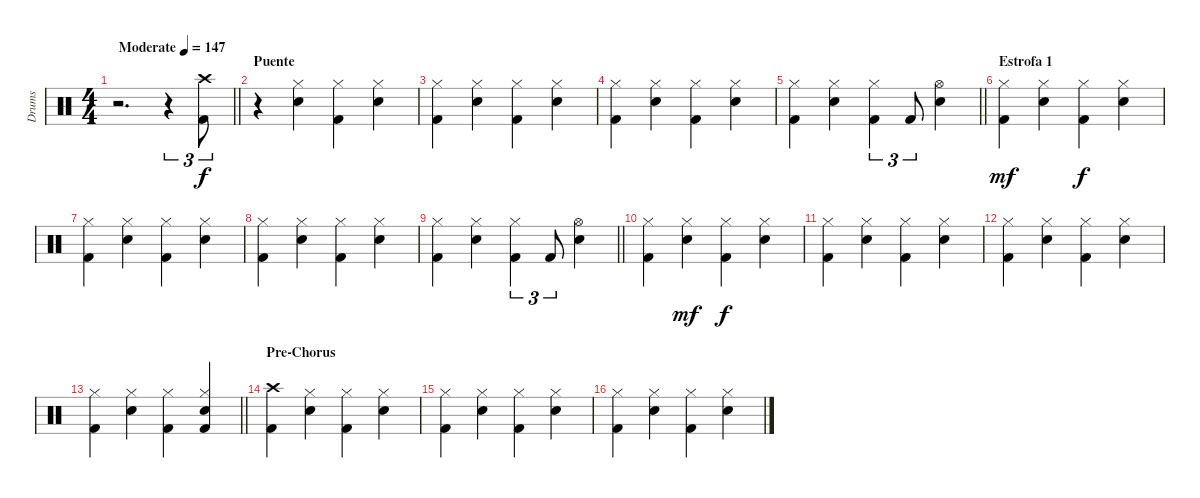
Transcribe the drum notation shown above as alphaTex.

\track ("Drums" "Drums") {instrument percussion}
\staff {score}
\articulation defaults
\ts (4 4)
\tempo (147 "Moderate")
\clef neutral
\barLineRight lightlight
\ks c
r.2{d dy f} r.4{tu (3 2)} ("Crash high (hit)" "Kick (hit) 2").8{tu (3 2)} |
\section ("" "Puente")
r.4 ("Hi-Hat (closed)" "Electric Snare (hit)").4 ("Hi-Hat (closed)" "Kick (hit) 2").4 ("Hi-Hat (closed)" "Electric Snare (hit)").4 |
("Hi-Hat (closed)" "Kick (hit) 2").4 ("Hi-Hat (closed)" "Electric Snare (hit)").4 ("Hi-Hat (closed)" "Kick (hit) 2").4 ("Hi-Hat (closed)" "Electric Snare (hit)").4 |
("Hi-Hat (closed)" "Kick (hit) 2").4 ("Hi-Hat (closed)" "Electric Snare (hit)").4 ("Hi-Hat (closed)" "Kick (hit) 2").4 ("Hi-Hat (closed)" "Electric Snare (hit)").4 |
\barLineRight lightlight
("Hi-Hat (closed)" "Kick (hit) 2").4 ("Hi-Hat (closed)" "Electric Snare (hit)").4 ("Hi-Hat (closed)" "Kick (hit) 2").4{tu (3 2)} "Kick (hit) 2".8{tu (3 2)} ("Hi-Hat (open)" "Electric Snare (hit)").4 |
\section ("" "Estrofa 1")
("Hi-Hat (closed)" "Kick (hit) 2").4{dy mf} ("Hi-Hat (closed)" "Electric Snare (hit)").4 ("Hi-Hat (closed)" "Kick (hit) 2").4{dy f} ("Hi-Hat (closed)" "Electric Snare (hit)").4 |
("Hi-Hat (closed)" "Kick (hit) 2").4 ("Hi-Hat (closed)" "Electric Snare (hit)").4 ("Hi-Hat (closed)" "Kick (hit) 2").4 ("Hi-Hat (closed)" "Electric Snare (hit)").4 |
("Hi-Hat (closed)" "Kick (hit) 2").4 ("Hi-Hat (closed)" "Electric Snare (hit)").4 ("Hi-Hat (closed)" "Kick (hit) 2").4 ("Hi-Hat (closed)" "Electric Snare (hit)").4 |
\barLineRight lightlight
("Hi-Hat (closed)" "Kick (hit) 2").4 ("Hi-Hat (closed)" "Electric Snare (hit)").4 ("Hi-Hat (closed)" "Kick (hit) 2").4{tu (3 2)} "Kick (hit) 2".8{tu (3 2)} ("Hi-Hat (open)" "Electric Snare (hit)").4 |
("Hi-Hat (closed)" "Kick (hit) 2").4 ("Hi-Hat (closed)" "Electric Snare (hit)").4{dy mf} ("Hi-Hat (closed)" "Kick (hit) 2").4{dy f} ("Hi-Hat (closed)" "Electric Snare (hit)").4 |
("Hi-Hat (closed)" "Kick (hit) 2").4 ("Hi-Hat (closed)" "Electric Snare (hit)").4 ("Hi-Hat (closed)" "Kick (hit) 2").4 ("Hi-Hat (closed)" "Electric Snare (hit)").4 |
("Hi-Hat (closed)" "Kick (hit) 2").4 ("Hi-Hat (closed)" "Electric Snare (hit)").4 ("Hi-Hat (closed)" "Kick (hit) 2").4 ("Hi-Hat (closed)" "Electric Snare (hit)").4 |
\barLineRight lightlight
("Hi-Hat (closed)" "Kick (hit) 2").4 ("Hi-Hat (closed)" "Electric Snare (hit)").4 ("Hi-Hat (closed)" "Kick (hit) 2").4 ("Hi-Hat (closed)" "Electric Snare (hit)" "Kick (hit) 2").4 |
\section ("" "Pre-Chorus")
("Crash high (hit)" "Kick (hit) 2").4 ("Hi-Hat (closed)" "Electric Snare (hit)").4 ("Hi-Hat (closed)" "Kick (hit) 2").4 ("Hi-Hat (closed)" "Electric Snare (hit)").4 |
("Hi-Hat (closed)" "Kick (hit) 2").4 ("Hi-Hat (closed)" "Electric Snare (hit)").4 ("Hi-Hat (closed)" "Kick (hit) 2").4 ("Hi-Hat (closed)" "Electric Snare (hit)").4 |
("Hi-Hat (closed)" "Kick (hit) 2").4 ("Hi-Hat (closed)" "Electric Snare (hit)").4 ("Hi-Hat (closed)" "Kick (hit) 2").4 ("Hi-Hat (closed)" "Electric Snare (hit)").4
